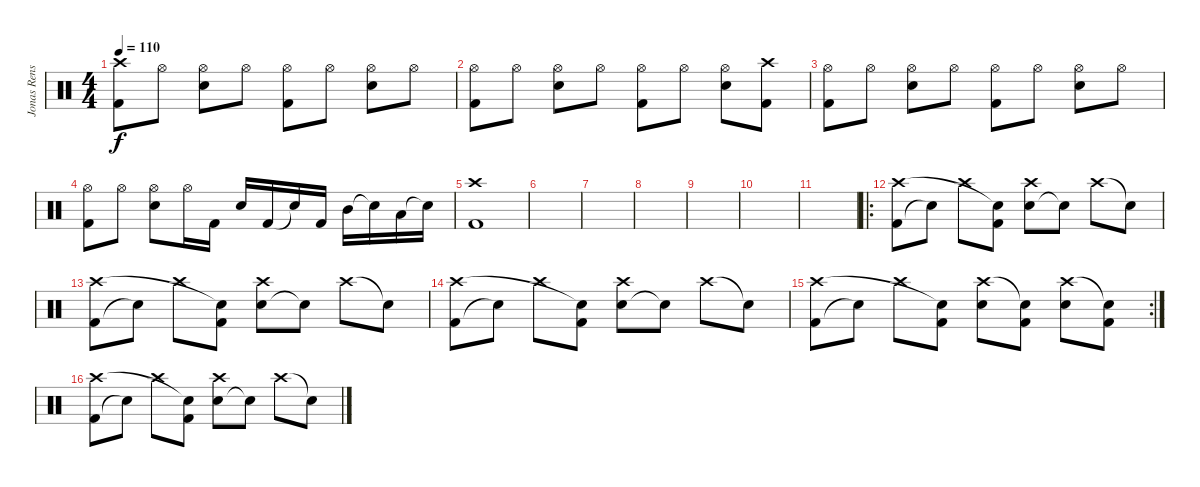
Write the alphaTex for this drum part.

\track ("Jonas Renske" "Jonas Rens") {instrument percussion}
\staff {score}
\articulation defaults
\ts (4 4)
\tempo 110
\clef neutral
\ks c
("Kick (hit) 2" "Crash high (hit)").8{dy f} "Hi-Hat (open)".8 ("Electric Snare (hit)" "Hi-Hat (open)").8 "Hi-Hat (open)".8 ("Kick (hit) 2" "Hi-Hat (open)").8 "Hi-Hat (open)".8 ("Electric Snare (hit)" "Hi-Hat (open)").8 "Hi-Hat (open)".8 |
("Kick (hit) 2" "Hi-Hat (open)").8 "Hi-Hat (open)".8 ("Electric Snare (hit)" "Hi-Hat (open)").8 "Hi-Hat (open)".8 ("Kick (hit) 2" "Hi-Hat (open)").8 "Hi-Hat (open)".8 ("Electric Snare (hit)" "Hi-Hat (open)").8 ("Kick (hit) 2" "Crash high (hit)").8 |
("Kick (hit) 2" "Hi-Hat (open)").8 "Hi-Hat (open)".8 ("Electric Snare (hit)" "Hi-Hat (open)").8 "Hi-Hat (open)".8 ("Kick (hit) 2" "Hi-Hat (open)").8 "Hi-Hat (open)".8 ("Electric Snare (hit)" "Hi-Hat (open)").8 "Hi-Hat (open)".8 |
("Kick (hit) 2" "Hi-Hat (open)").8 "Hi-Hat (open)".8 ("Electric Snare (hit)" "Hi-Hat (open)").8 "Hi-Hat (open)".16 "Kick (hit) 2".16 "Electric Snare (hit)".16 "Kick (hit) 2".16 "Snare (hit)"{t}.16 "Kick (hit) 2".16 "Mid Tom (hit)".16 "Snare (hit)"{t}.16 "Low Tom (hit)".16 "Snare (hit)"{t}.16 |
("Kick (hit) 2" "Crash high (hit)").1 |
|
|
|
|
|
|
\ro
("Kick (hit) 2" "Crash high (hit)").8 "Snare (hit)"{t}.8 "Crash high (hit)".8 ("Kick (hit) 2" "Snare (hit)"{t}).8 ("Electric Snare (hit)" "Crash high (hit)").8 "Snare (hit)"{t}.8 "Crash high (hit)".8 "Snare (hit)"{t}.8 |
("Kick (hit) 2" "Crash high (hit)").8 "Snare (hit)"{t}.8 "Crash high (hit)".8 ("Kick (hit) 2" "Snare (hit)"{t}).8 ("Electric Snare (hit)" "Crash high (hit)").8 "Snare (hit)"{t}.8 "Crash high (hit)".8 "Snare (hit)"{t}.8 |
("Kick (hit) 2" "Crash high (hit)").8 "Snare (hit)"{t}.8 "Crash high (hit)".8 ("Kick (hit) 2" "Snare (hit)"{t}).8 ("Electric Snare (hit)" "Crash high (hit)").8 "Snare (hit)"{t}.8 "Crash high (hit)".8 "Snare (hit)"{t}.8 |
\rc 2
("Kick (hit) 2" "Crash high (hit)").8 "Snare (hit)"{t}.8 "Crash high (hit)".8 ("Kick (hit) 2" "Snare (hit)"{t}).8 ("Electric Snare (hit)" "Crash high (hit)").8 ("Kick (hit) 2" "Snare (hit)"{t}).8 ("Electric Snare (hit)" "Crash high (hit)").8 ("Kick (hit) 2" "Snare (hit)"{t}).8 |
("Kick (hit) 2" "Crash high (hit)").8 "Snare (hit)"{t}.8 "Crash high (hit)".8 ("Kick (hit) 2" "Snare (hit)"{t}).8 ("Electric Snare (hit)" "Crash high (hit)").8 "Snare (hit)"{t}.8 "Crash high (hit)".8 "Snare (hit)"{t}.8
